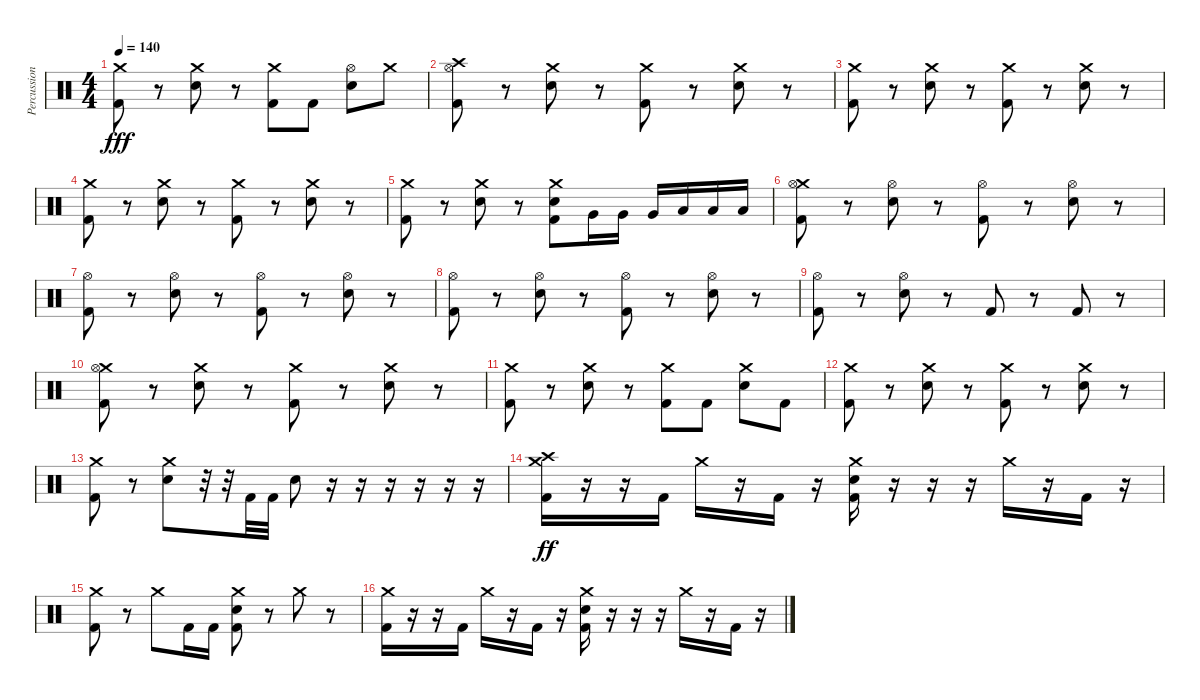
\track ("Percussion" "Percussion") {instrument percussion}
\staff {score}
\articulation defaults
\ts (4 4)
\tempo 140
\clef neutral
\ks c
("Crash medium (hit)" "Kick (hit) 2").8{dy fff} r.8 ("Crash medium (hit)" "Electric Snare (hit)").8 r.8 ("Crash medium (hit)" "Kick (hit) 2").8 "Kick (hit) 2".8 ("Hi-Hat (open)" "Electric Snare (hit)").8 "Crash medium (hit)".8 |
("Crash high (hit)" "Hi-Hat (open)" "Kick (hit) 2").8 r.8 ("Crash medium (hit)" "Electric Snare (hit)").8 r.8 ("Crash medium (hit)" "Kick (hit) 2").8 r.8 ("Crash medium (hit)" "Electric Snare (hit)").8 r.8 |
("Crash medium (hit)" "Kick (hit) 2").8 r.8 ("Crash medium (hit)" "Electric Snare (hit)").8 r.8 ("Crash medium (hit)" "Kick (hit) 2").8 r.8 ("Crash medium (hit)" "Electric Snare (hit)").8 r.8 |
("Crash medium (hit)" "Kick (hit) 2").8 r.8 ("Crash medium (hit)" "Electric Snare (hit)").8 r.8 ("Crash medium (hit)" "Kick (hit) 2").8 r.8 ("Crash medium (hit)" "Electric Snare (hit)").8 r.8 |
("Crash medium (hit)" "Kick (hit) 2").8 r.8 ("Crash medium (hit)" "Electric Snare (hit)").8 r.8 ("Crash medium (hit)" "Electric Snare (hit)" "Kick (hit) 2").8 "Very Low Tom (hit)".16 "Very Low Tom (hit)".16 "Very Low Tom (hit)".16 "Low Floor Tom (hit)".16 "Low Floor Tom (hit)".16 "Low Floor Tom (hit)".16 |
("Crash medium (hit)" "Hi-Hat (open)" "Kick (hit) 2").8 r.8 ("Hi-Hat (open)" "Electric Snare (hit)").8 r.8 ("Hi-Hat (open)" "Kick (hit) 2").8 r.8 ("Hi-Hat (open)" "Electric Snare (hit)").8 r.8 |
("Hi-Hat (open)" "Kick (hit) 2").8 r.8 ("Hi-Hat (open)" "Electric Snare (hit)").8 r.8 ("Hi-Hat (open)" "Kick (hit) 2").8 r.8 ("Hi-Hat (open)" "Electric Snare (hit)").8 r.8 |
("Hi-Hat (open)" "Kick (hit) 2").8 r.8 ("Hi-Hat (open)" "Electric Snare (hit)").8 r.8 ("Hi-Hat (open)" "Kick (hit) 2").8 r.8 ("Hi-Hat (open)" "Electric Snare (hit)").8 r.8 |
("Hi-Hat (open)" "Kick (hit) 2").8 r.8 ("Hi-Hat (open)" "Electric Snare (hit)").8 r.8 "Kick (hit) 2".8 r.8 "Kick (hit) 2".8 r.8 |
("Crash medium (hit)" "Hi-Hat (open)" "Kick (hit) 2").8 r.8 ("Crash medium (hit)" "Electric Snare (hit)").8 r.8 ("Crash medium (hit)" "Kick (hit) 2").8 r.8 ("Crash medium (hit)" "Electric Snare (hit)").8 r.8 |
("Crash medium (hit)" "Kick (hit) 2").8 r.8 ("Crash medium (hit)" "Electric Snare (hit)").8 r.8 ("Crash medium (hit)" "Kick (hit) 2").8 "Kick (hit) 2".8 ("Crash medium (hit)" "Electric Snare (hit)").8 "Kick (hit) 2".8 |
("Crash medium (hit)" "Kick (hit) 2").8 r.8 ("Crash medium (hit)" "Electric Snare (hit)").8 r.8 ("Crash medium (hit)" "Kick (hit) 2").8 r.8 ("Crash medium (hit)" "Electric Snare (hit)").8 r.8 |
("Crash medium (hit)" "Kick (hit) 2").8 r.8 ("Crash medium (hit)" "Electric Snare (hit)").8 r.32 r.32 "Kick (hit) 2".32 "Kick (hit) 2".32 "Electric Snare (hit)".8 r.16 r.16 r.16 r.16 r.16 r.16 |
("Crash medium (hit)" "Crash high (hit)" "Kick (hit) 2").16{dy ff} r.16 r.16 "Kick (hit) 2".16 "Crash medium (hit)".16 r.16 "Kick (hit) 2".16 r.16 ("Crash medium (hit)" "Electric Snare (hit)" "Kick (hit) 2").16 r.16 r.16 r.16 "Crash medium (hit)".16 r.16 "Kick (hit) 2".16 r.16 |
("Crash medium (hit)" "Kick (hit) 2").8 r.8 "Crash medium (hit)".8 "Kick (hit) 2".16 "Kick (hit) 2".16 ("Crash medium (hit)" "Electric Snare (hit)" "Kick (hit) 2").8 r.8 "Crash medium (hit)".8 r.8 |
("Crash medium (hit)" "Kick (hit) 2").16 r.16 r.16 "Kick (hit) 2".16 "Crash medium (hit)".16 r.16 "Kick (hit) 2".16 r.16 ("Crash medium (hit)" "Electric Snare (hit)" "Kick (hit) 2").16 r.16 r.16 r.16 "Crash medium (hit)".16 r.16 "Kick (hit) 2".16 r.16
